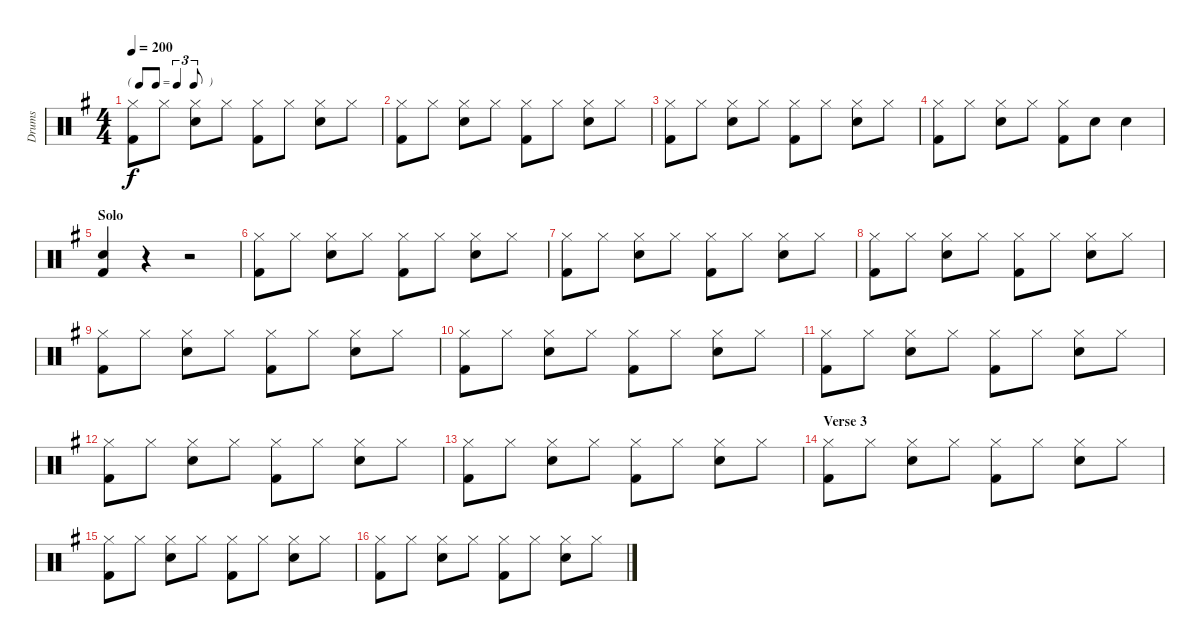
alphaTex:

\track ("Drums" "Drums") {instrument percussion}
\staff {score}
\articulation defaults
\ts (4 4)
\tf triplet8th
\tempo 200
\clef neutral
\ks g
("Hi-Hat (closed)" "Kick (hit) 2").8{dy f} "Hi-Hat (closed)".8 ("Hi-Hat (closed)" "Snare (hit) 2").8 "Hi-Hat (closed)".8 ("Hi-Hat (closed)" "Kick (hit) 2").8 "Hi-Hat (closed)".8 ("Hi-Hat (closed)" "Snare (hit) 2").8 "Hi-Hat (closed)".8 |
("Hi-Hat (closed)" "Kick (hit) 2").8 "Hi-Hat (closed)".8 ("Hi-Hat (closed)" "Snare (hit) 2").8 "Hi-Hat (closed)".8 ("Hi-Hat (closed)" "Kick (hit) 2").8 "Hi-Hat (closed)".8 ("Hi-Hat (closed)" "Snare (hit) 2").8 "Hi-Hat (closed)".8 |
("Hi-Hat (closed)" "Kick (hit) 2").8 "Hi-Hat (closed)".8 ("Hi-Hat (closed)" "Snare (hit) 2").8 "Hi-Hat (closed)".8 ("Hi-Hat (closed)" "Kick (hit) 2").8 "Hi-Hat (closed)".8 ("Hi-Hat (closed)" "Snare (hit) 2").8 "Hi-Hat (closed)".8 |
("Hi-Hat (closed)" "Kick (hit) 2").8 "Hi-Hat (closed)".8 ("Hi-Hat (closed)" "Snare (hit) 2").8 "Hi-Hat (closed)".8 ("Hi-Hat (closed)" "Kick (hit) 2").8 "Snare (hit) 2".8 "Snare (hit) 2".4 |
\section ("" "Solo")
("Snare (hit) 2" "Kick (hit) 2").4 r.4 r.2 |
("Hi-Hat (closed)" "Kick (hit) 2").8 "Hi-Hat (closed)".8 ("Hi-Hat (closed)" "Snare (hit) 2").8 "Hi-Hat (closed)".8 ("Hi-Hat (closed)" "Kick (hit) 2").8 "Hi-Hat (closed)".8 ("Hi-Hat (closed)" "Snare (hit) 2").8 "Hi-Hat (closed)".8 |
("Hi-Hat (closed)" "Kick (hit) 2").8 "Hi-Hat (closed)".8 ("Hi-Hat (closed)" "Snare (hit) 2").8 "Hi-Hat (closed)".8 ("Hi-Hat (closed)" "Kick (hit) 2").8 "Hi-Hat (closed)".8 ("Hi-Hat (closed)" "Snare (hit) 2").8 "Hi-Hat (closed)".8 |
("Hi-Hat (closed)" "Kick (hit) 2").8 "Hi-Hat (closed)".8 ("Hi-Hat (closed)" "Snare (hit) 2").8 "Hi-Hat (closed)".8 ("Hi-Hat (closed)" "Kick (hit) 2").8 "Hi-Hat (closed)".8 ("Hi-Hat (closed)" "Snare (hit) 2").8 "Hi-Hat (closed)".8 |
("Hi-Hat (closed)" "Kick (hit) 2").8 "Hi-Hat (closed)".8 ("Hi-Hat (closed)" "Snare (hit) 2").8 "Hi-Hat (closed)".8 ("Hi-Hat (closed)" "Kick (hit) 2").8 "Hi-Hat (closed)".8 ("Hi-Hat (closed)" "Snare (hit) 2").8 "Hi-Hat (closed)".8 |
("Hi-Hat (closed)" "Kick (hit) 2").8 "Hi-Hat (closed)".8 ("Hi-Hat (closed)" "Snare (hit) 2").8 "Hi-Hat (closed)".8 ("Hi-Hat (closed)" "Kick (hit) 2").8 "Hi-Hat (closed)".8 ("Hi-Hat (closed)" "Snare (hit) 2").8 "Hi-Hat (closed)".8 |
("Hi-Hat (closed)" "Kick (hit) 2").8 "Hi-Hat (closed)".8 ("Hi-Hat (closed)" "Snare (hit) 2").8 "Hi-Hat (closed)".8 ("Hi-Hat (closed)" "Kick (hit) 2").8 "Hi-Hat (closed)".8 ("Hi-Hat (closed)" "Snare (hit) 2").8 "Hi-Hat (closed)".8 |
("Hi-Hat (closed)" "Kick (hit) 2").8 "Hi-Hat (closed)".8 ("Hi-Hat (closed)" "Snare (hit) 2").8 "Hi-Hat (closed)".8 ("Hi-Hat (closed)" "Kick (hit) 2").8 "Hi-Hat (closed)".8 ("Hi-Hat (closed)" "Snare (hit) 2").8 "Hi-Hat (closed)".8 |
("Hi-Hat (closed)" "Kick (hit) 2").8 "Hi-Hat (closed)".8 ("Hi-Hat (closed)" "Snare (hit) 2").8 "Hi-Hat (closed)".8 ("Hi-Hat (closed)" "Kick (hit) 2").8 "Hi-Hat (closed)".8 ("Hi-Hat (closed)" "Snare (hit) 2").8 "Hi-Hat (closed)".8 |
\section ("" "Verse 3")
("Hi-Hat (closed)" "Kick (hit) 2").8 "Hi-Hat (closed)".8 ("Hi-Hat (closed)" "Snare (hit) 2").8 "Hi-Hat (closed)".8 ("Hi-Hat (closed)" "Kick (hit) 2").8 "Hi-Hat (closed)".8 ("Hi-Hat (closed)" "Snare (hit) 2").8 "Hi-Hat (closed)".8 |
("Hi-Hat (closed)" "Kick (hit) 2").8 "Hi-Hat (closed)".8 ("Hi-Hat (closed)" "Snare (hit) 2").8 "Hi-Hat (closed)".8 ("Hi-Hat (closed)" "Kick (hit) 2").8 "Hi-Hat (closed)".8 ("Hi-Hat (closed)" "Snare (hit) 2").8 "Hi-Hat (closed)".8 |
("Hi-Hat (closed)" "Kick (hit) 2").8 "Hi-Hat (closed)".8 ("Hi-Hat (closed)" "Snare (hit) 2").8 "Hi-Hat (closed)".8 ("Hi-Hat (closed)" "Kick (hit) 2").8 "Hi-Hat (closed)".8 ("Hi-Hat (closed)" "Snare (hit) 2").8 "Hi-Hat (closed)".8
